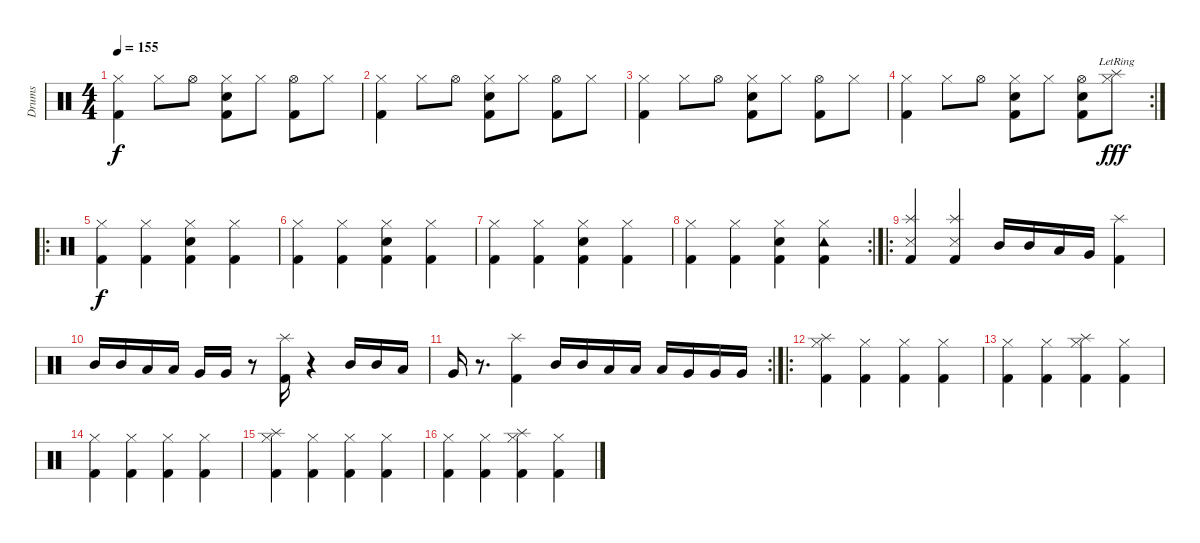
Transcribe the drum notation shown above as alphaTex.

\track ("Drums" "Drums") {instrument percussion}
\staff {score}
\articulation defaults
\ts (4 4)
\tempo 155
\clef neutral
\ks c
("Hi-Hat (closed)" "Kick (hit) 2").4{dy f} "Hi-Hat (closed)".8 "Hi-Hat (open)".8 ("Hi-Hat (closed)" "Snare (hit) 2" "Kick (hit) 2").8 "Hi-Hat (closed)".8 ("Hi-Hat (open)" "Kick (hit) 2").8 "Hi-Hat (closed)".8 |
("Hi-Hat (closed)" "Kick (hit) 2").4 "Hi-Hat (closed)".8 "Hi-Hat (open)".8 ("Hi-Hat (closed)" "Snare (hit) 2" "Kick (hit) 2").8 "Hi-Hat (closed)".8 ("Hi-Hat (open)" "Kick (hit) 2").8 "Hi-Hat (closed)".8 |
("Hi-Hat (closed)" "Kick (hit) 2").4 "Hi-Hat (closed)".8 "Hi-Hat (open)".8 ("Hi-Hat (closed)" "Snare (hit) 2" "Kick (hit) 2").8 "Hi-Hat (closed)".8 ("Hi-Hat (open)" "Kick (hit) 2").8 "Hi-Hat (closed)".8 |
\rc 2
("Hi-Hat (closed)" "Kick (hit) 2").4 "Hi-Hat (closed)".8 "Hi-Hat (open)".8 ("Hi-Hat (closed)" "Snare (hit) 2" "Kick (hit) 2").8 "Hi-Hat (closed)".8 ("Hi-Hat (open)" "Snare (hit) 2" "Kick (hit) 2").8 ("Splash (hit)"{lr} "Hi-Hat (closed)").8{dy fff} |
\ro
("Hi-Hat (closed)" "Kick (hit) 2").4{dy f} ("Hi-Hat (closed)" "Kick (hit) 2").4 ("Hi-Hat (closed)" "Snare (hit) 2" "Kick (hit) 2").4 ("Hi-Hat (closed)" "Kick (hit) 2").4 |
("Hi-Hat (closed)" "Kick (hit) 2").4 ("Hi-Hat (closed)" "Kick (hit) 2").4 ("Hi-Hat (closed)" "Snare (hit) 2" "Kick (hit) 2").4 ("Hi-Hat (closed)" "Kick (hit) 2").4 |
("Hi-Hat (closed)" "Kick (hit) 2").4 ("Hi-Hat (closed)" "Kick (hit) 2").4 ("Hi-Hat (closed)" "Snare (hit) 2" "Kick (hit) 2").4 ("Hi-Hat (closed)" "Kick (hit) 2").4 |
\rc 2
("Hi-Hat (closed)" "Kick (hit) 2").4 ("Hi-Hat (closed)" "Kick (hit) 2").4 ("Hi-Hat (closed)" "Snare (hit) 2" "Kick (hit) 2").4 ("Tambourine (hit)" "Hi-Hat (closed)" "Kick (hit) 2").4 |
\ro
("Splash (hit)" "Snare (side stick) 3" "Kick (hit) 2").4 ("Splash (hit)" "Snare (side stick) 3" "Kick (hit) 2").4 "Mid Tom (hit)".16 "Mid Tom (hit)".16 "Low Tom (hit)".16 "Very Low Tom (hit)".16 ("Splash (hit)" "Kick (hit) 2").4 |
"Mid Tom (hit)".16 "Mid Tom (hit)".16 "Low Tom (hit)".16 "Low Tom (hit)".16 "Very Low Tom (hit)".16 "Very Low Tom (hit)".16 r.8 ("Splash (hit)" "Kick (hit) 2").16 r.4 "Mid Tom (hit)".16 "Mid Tom (hit)".16 "Low Tom (hit)".16 |
\rc 2 "Very Low Tom (hit)".16
r.8{d} ("Splash (hit)" "Kick (hit) 2").4 "Mid Tom (hit)".16 "Mid Tom (hit)".16 "Low Tom (hit)".16 "Low Tom (hit)".16 "Low Tom (hit)".16 "Very Low Tom (hit)".16 "Very Low Tom (hit)".16 "Very Low Tom (hit)".16 |
\ro
("Splash (hit)" "Hi-Hat (closed)" "Kick (hit) 2").4 ("Hi-Hat (closed)" "Kick (hit) 2").4 ("Hi-Hat (closed)" "Kick (hit) 2").4 ("Hi-Hat (closed)" "Kick (hit) 2").4 |
("Hi-Hat (closed)" "Kick (hit) 2").4 ("Hi-Hat (closed)" "Kick (hit) 2").4 ("Splash (hit)" "Hi-Hat (closed)" "Kick (hit) 2").4 ("Hi-Hat (closed)" "Kick (hit) 2").4 |
("Hi-Hat (closed)" "Kick (hit) 2").4 ("Hi-Hat (closed)" "Kick (hit) 2").4 ("Hi-Hat (closed)" "Kick (hit) 2").4 ("Hi-Hat (closed)" "Kick (hit) 2").4 |
("Splash (hit)" "Hi-Hat (closed)" "Kick (hit) 2").4 ("Hi-Hat (closed)" "Kick (hit) 2").4 ("Hi-Hat (closed)" "Kick (hit) 2").4 ("Hi-Hat (closed)" "Kick (hit) 2").4 |
("Hi-Hat (closed)" "Kick (hit) 2").4 ("Hi-Hat (closed)" "Kick (hit) 2").4 ("Splash (hit)" "Hi-Hat (closed)" "Kick (hit) 2").4 ("Hi-Hat (closed)" "Kick (hit) 2").4
